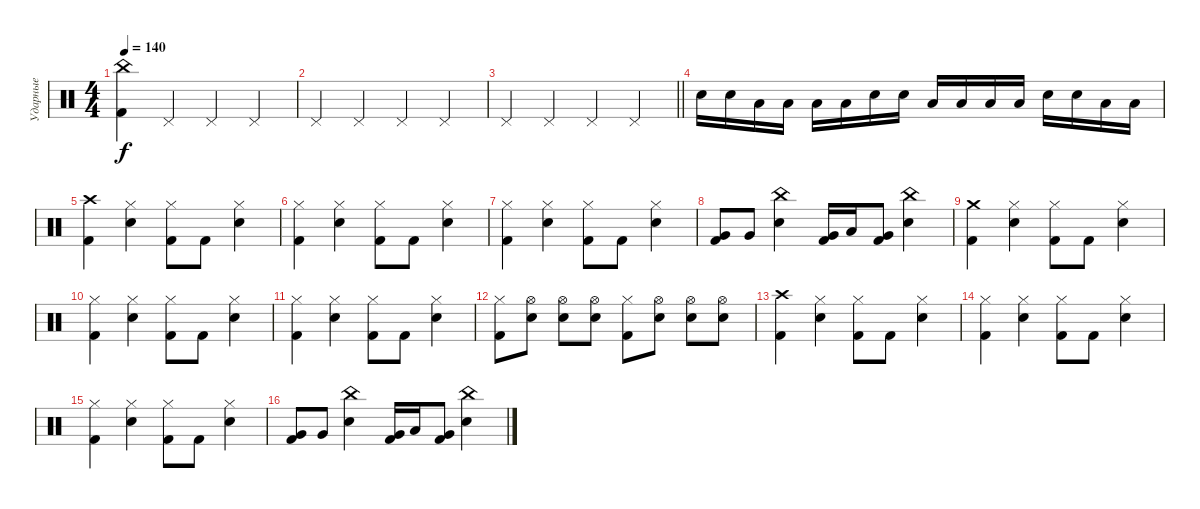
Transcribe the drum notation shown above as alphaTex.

\track ("Ударные" "Ударные") {instrument percussion}
\staff {score}
\articulation defaults
\ts (4 4)
\tempo 140
\clef neutral
\ks c
("China (hit)" "Kick (hit) 2").4{dy f} "Pedal Hi-Hat (hit)".4 "Pedal Hi-Hat (hit)".4 "Pedal Hi-Hat (hit)".4 |
"Pedal Hi-Hat (hit)".4 "Pedal Hi-Hat (hit)".4 "Pedal Hi-Hat (hit)".4 "Pedal Hi-Hat (hit)".4 |
\barLineRight lightlight "Pedal Hi-Hat (hit)".4 "Pedal Hi-Hat (hit)".4 "Pedal Hi-Hat (hit)".4 "Pedal Hi-Hat (hit)".4
|
"Electric Snare (hit)".16 "Electric Snare (hit)".16 "Low Tom (hit)".16 "Low Tom (hit)".16 "Low Tom (hit)".16 "Low Tom (hit)".16 "Electric Snare (hit)".16 "Electric Snare (hit)".16 "Low Tom (hit)".16 "Low Tom (hit)".16 "Low Tom (hit)".16 "Low Tom (hit)".16 "Electric Snare (hit)".16 "Electric Snare (hit)".16 "Low Tom (hit)".16 "Low Tom (hit)".16 |
("Crash high (hit)" "Kick (hit) 2").4 ("Hi-Hat (closed)" "Electric Snare (hit)").4 ("Hi-Hat (closed)" "Kick (hit) 2").8 "Kick (hit) 2".8 ("Hi-Hat (closed)" "Electric Snare (hit)").4 |
("Hi-Hat (closed)" "Kick (hit) 2").4 ("Hi-Hat (closed)" "Electric Snare (hit)").4 ("Hi-Hat (closed)" "Kick (hit) 2").8 "Kick (hit) 2".8 ("Hi-Hat (closed)" "Electric Snare (hit)").4 |
("Hi-Hat (closed)" "Kick (hit) 2").4 ("Hi-Hat (closed)" "Electric Snare (hit)").4 ("Hi-Hat (closed)" "Kick (hit) 2").8 "Kick (hit) 2".8 ("Hi-Hat (closed)" "Electric Snare (hit)").4 |
("Very Low Tom (hit)" "Kick (hit) 2").8 "Very Low Tom (hit)".8 ("China (hit)" "Electric Snare (hit)").4 ("Very Low Tom (hit)" "Kick (hit) 2").16 "Low Tom (hit)".16 ("Very Low Tom (hit)" "Kick (hit) 2").8 ("China (hit)" "Electric Snare (hit)").4 |
("Crash medium (hit)" "Kick (hit) 2").4 ("Hi-Hat (closed)" "Electric Snare (hit)").4 ("Hi-Hat (closed)" "Kick (hit) 2").8 "Kick (hit) 2".8 ("Hi-Hat (closed)" "Electric Snare (hit)").4 |
("Hi-Hat (closed)" "Kick (hit) 2").4 ("Hi-Hat (closed)" "Electric Snare (hit)").4 ("Hi-Hat (closed)" "Kick (hit) 2").8 "Kick (hit) 2".8 ("Hi-Hat (closed)" "Electric Snare (hit)").4 |
("Hi-Hat (closed)" "Kick (hit) 2").4 ("Hi-Hat (closed)" "Electric Snare (hit)").4 ("Hi-Hat (closed)" "Kick (hit) 2").8 "Kick (hit) 2".8 ("Hi-Hat (closed)" "Electric Snare (hit)").4 |
("Hi-Hat (closed)" "Kick (hit) 2").8 ("Electric Snare (hit)" "Hi-Hat (open)").8 ("Electric Snare (hit)" "Hi-Hat (open)").8 ("Hi-Hat (open)" "Electric Snare (hit)").8 ("Hi-Hat (closed)" "Kick (hit) 2").8 ("Hi-Hat (open)" "Electric Snare (hit)").8 ("Hi-Hat (open)" "Electric Snare (hit)").8 ("Hi-Hat (open)" "Electric Snare (hit)").8 |
("Crash high (hit)" "Kick (hit) 2").4 ("Hi-Hat (closed)" "Electric Snare (hit)").4 ("Hi-Hat (closed)" "Kick (hit) 2").8 "Kick (hit) 2".8 ("Hi-Hat (closed)" "Electric Snare (hit)").4 |
("Hi-Hat (closed)" "Kick (hit) 2").4 ("Hi-Hat (closed)" "Electric Snare (hit)").4 ("Hi-Hat (closed)" "Kick (hit) 2").8 "Kick (hit) 2".8 ("Hi-Hat (closed)" "Electric Snare (hit)").4 |
("Hi-Hat (closed)" "Kick (hit) 2").4 ("Hi-Hat (closed)" "Electric Snare (hit)").4 ("Hi-Hat (closed)" "Kick (hit) 2").8 "Kick (hit) 2".8 ("Hi-Hat (closed)" "Electric Snare (hit)").4 |
("Very Low Tom (hit)" "Kick (hit) 2").8 "Very Low Tom (hit)".8 ("China (hit)" "Electric Snare (hit)").4 ("Very Low Tom (hit)" "Kick (hit) 2").16 "Low Tom (hit)".16 ("Very Low Tom (hit)" "Kick (hit) 2").8 ("China (hit)" "Electric Snare (hit)").4
